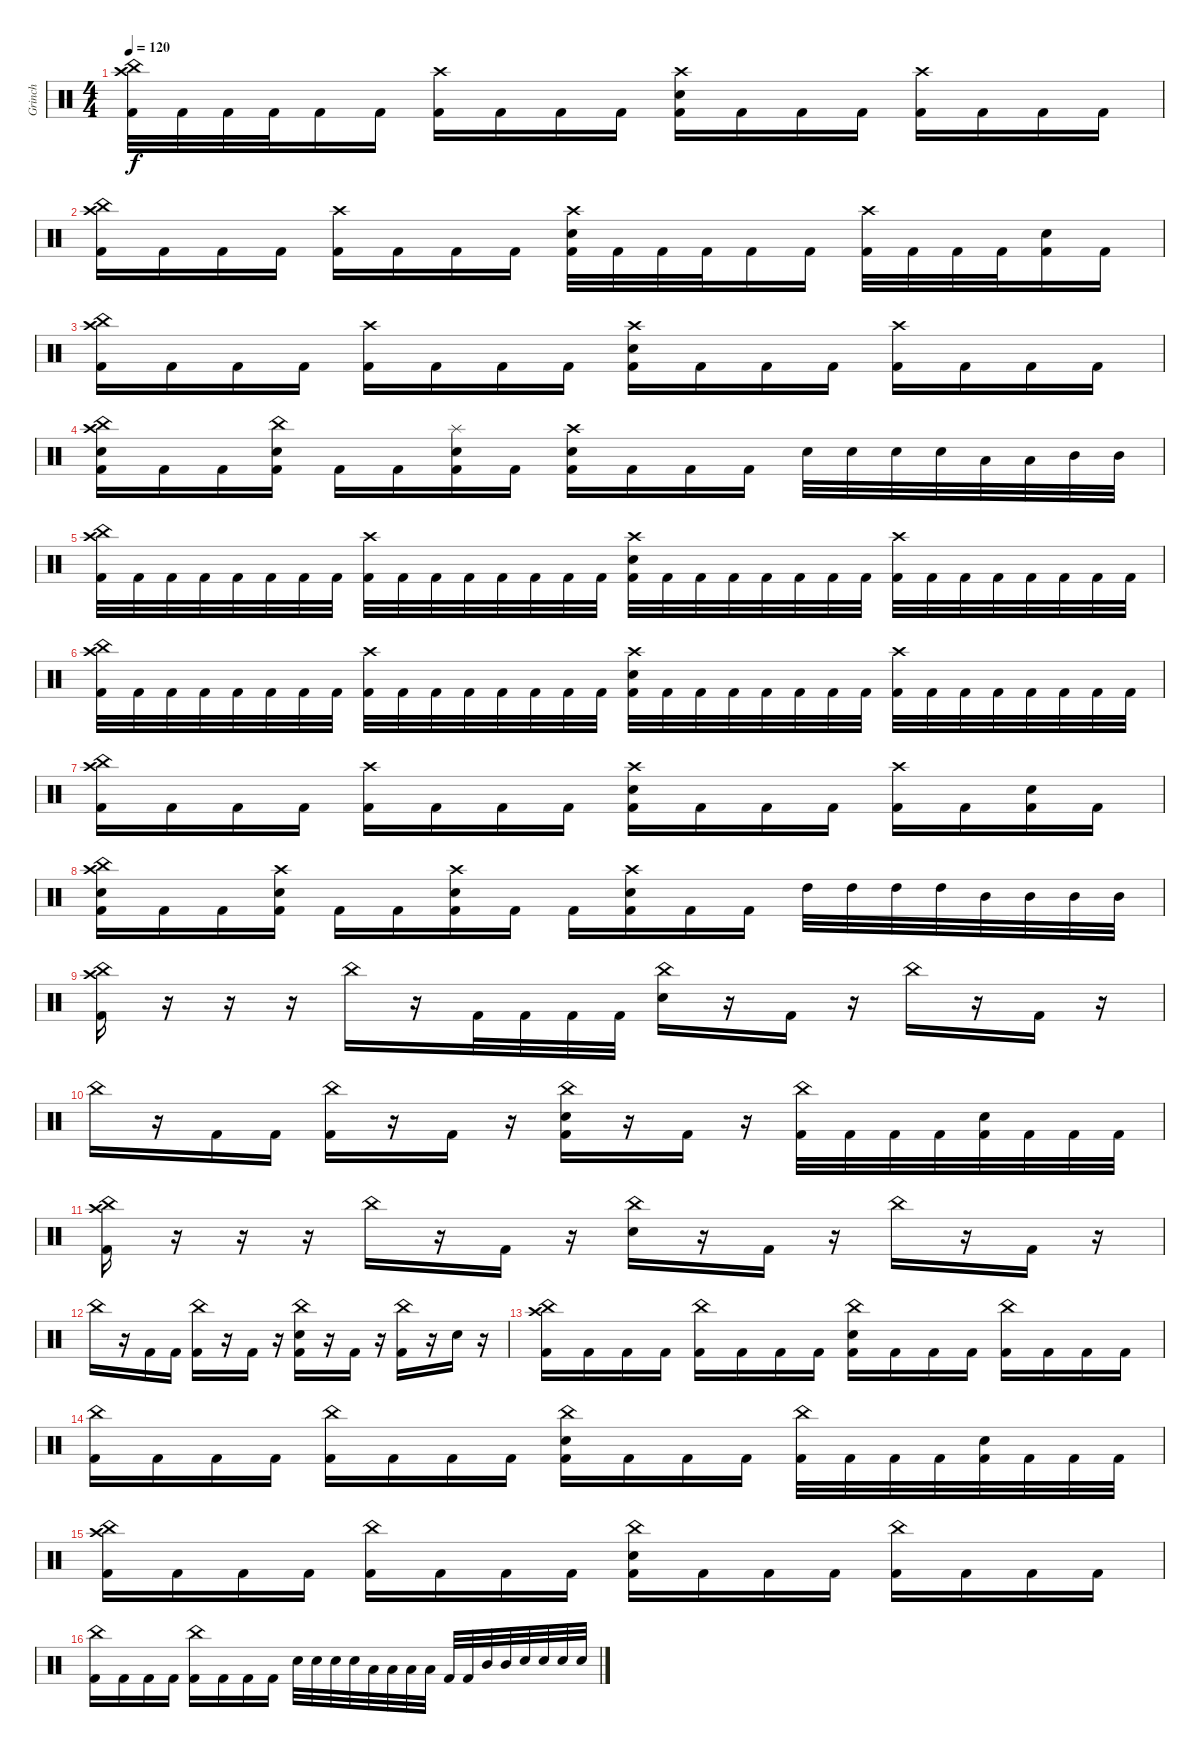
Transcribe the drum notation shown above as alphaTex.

\track ("Grinch" "Grinch") {instrument percussion}
\staff {score}
\articulation defaults
\ts (4 4)
\tempo 120
\clef neutral
\ks c
("Crash high (hit)" "China (hit)" "Kick (hit) 2").32{dy f} "Kick (hit) 2".32 "Kick (hit) 2".32 "Kick (hit) 2".32 "Kick (hit) 2".16 "Kick (hit) 2".16 ("Crash high (hit)" "Kick (hit) 2").16 "Kick (hit) 2".16 "Kick (hit) 2".16 "Kick (hit) 2".16 ("Crash high (hit)" "Snare (hit) 2" "Kick (hit) 2").16 "Kick (hit) 2".16 "Kick (hit) 2".16 "Kick (hit) 2".16 ("Crash high (hit)" "Kick (hit) 2").16 "Kick (hit) 2".16 "Kick (hit) 2".16 "Kick (hit) 2".16 |
("Crash high (hit)" "China (hit)" "Kick (hit) 2").16 "Kick (hit) 2".16 "Kick (hit) 2".16 "Kick (hit) 2".16 ("Crash high (hit)" "Kick (hit) 2").16 "Kick (hit) 2".16 "Kick (hit) 2".16 "Kick (hit) 2".16 ("Crash high (hit)" "Snare (hit) 2" "Kick (hit) 2").32 "Kick (hit) 2".32 "Kick (hit) 2".32 "Kick (hit) 2".32 "Kick (hit) 2".16 "Kick (hit) 2".16 ("Crash high (hit)" "Kick (hit) 2").32 "Kick (hit) 2".32 "Kick (hit) 2".32 "Kick (hit) 2".32 ("Snare (hit) 2" "Kick (hit) 2").16 "Kick (hit) 2".16 |
("Crash high (hit)" "China (hit)" "Kick (hit) 2").16 "Kick (hit) 2".16 "Kick (hit) 2".16 "Kick (hit) 2".16 ("Crash high (hit)" "Kick (hit) 2").16 "Kick (hit) 2".16 "Kick (hit) 2".16 "Kick (hit) 2".16 ("Crash high (hit)" "Snare (hit) 2" "Kick (hit) 2").16 "Kick (hit) 2".16 "Kick (hit) 2".16 "Kick (hit) 2".16 ("Crash high (hit)" "Kick (hit) 2").16 "Kick (hit) 2".16 "Kick (hit) 2".16 "Kick (hit) 2".16 |
("Crash high (hit)" "China (hit)" "Snare (hit) 2" "Kick (hit) 2").16 "Kick (hit) 2".16 "Kick (hit) 2".16 ("China (hit)" "Snare (hit) 2" "Kick (hit) 2").16 "Kick (hit) 2".16 "Kick (hit) 2".16 ("Splash (hit)" "Snare (hit) 2" "Kick (hit) 2").16 "Kick (hit) 2".16 ("Crash high (hit)" "Snare (hit) 2" "Kick (hit) 2").16 "Kick (hit) 2".16 "Kick (hit) 2".16 "Kick (hit) 2".16 "Snare (hit) 2".32 "Snare (hit) 2".32 "Snare (hit) 2".32 "Snare (hit) 2".32 "Low Tom (hit)".32 "Low Tom (hit)".32 "Mid Tom (hit)".32 "Mid Tom (hit)".32 |
("Crash high (hit)" "China (hit)" "Kick (hit) 2").32 "Kick (hit) 2".32 "Kick (hit) 2".32 "Kick (hit) 2".32 "Kick (hit) 2".32 "Kick (hit) 2".32 "Kick (hit) 2".32 "Kick (hit) 2".32 ("Crash high (hit)" "Kick (hit) 2").32 "Kick (hit) 2".32 "Kick (hit) 2".32 "Kick (hit) 2".32 "Kick (hit) 2".32 "Kick (hit) 2".32 "Kick (hit) 2".32 "Kick (hit) 2".32 ("Crash high (hit)" "Snare (hit) 2" "Kick (hit) 2").32 "Kick (hit) 2".32 "Kick (hit) 2".32 "Kick (hit) 2".32 "Kick (hit) 2".32 "Kick (hit) 2".32 "Kick (hit) 2".32 "Kick (hit) 2".32 ("Crash high (hit)" "Kick (hit) 2").32 "Kick (hit) 2".32 "Kick (hit) 2".32 "Kick (hit) 2".32 "Kick (hit) 2".32 "Kick (hit) 2".32 "Kick (hit) 2".32 "Kick (hit) 2".32 |
("Crash high (hit)" "China (hit)" "Kick (hit) 2").32 "Kick (hit) 2".32 "Kick (hit) 2".32 "Kick (hit) 2".32 "Kick (hit) 2".32 "Kick (hit) 2".32 "Kick (hit) 2".32 "Kick (hit) 2".32 ("Crash high (hit)" "Kick (hit) 2").32 "Kick (hit) 2".32 "Kick (hit) 2".32 "Kick (hit) 2".32 "Kick (hit) 2".32 "Kick (hit) 2".32 "Kick (hit) 2".32 "Kick (hit) 2".32 ("Crash high (hit)" "Snare (hit) 2" "Kick (hit) 2").32 "Kick (hit) 2".32 "Kick (hit) 2".32 "Kick (hit) 2".32 "Kick (hit) 2".32 "Kick (hit) 2".32 "Kick (hit) 2".32 "Kick (hit) 2".32 ("Crash high (hit)" "Kick (hit) 2").32 "Kick (hit) 2".32 "Kick (hit) 2".32 "Kick (hit) 2".32 "Kick (hit) 2".32 "Kick (hit) 2".32 "Kick (hit) 2".32 "Kick (hit) 2".32 |
("Crash high (hit)" "China (hit)" "Kick (hit) 2").16 "Kick (hit) 2".16 "Kick (hit) 2".16 "Kick (hit) 2".16 ("Crash high (hit)" "Kick (hit) 2").16 "Kick (hit) 2".16 "Kick (hit) 2".16 "Kick (hit) 2".16 ("Crash high (hit)" "Snare (hit) 2" "Kick (hit) 2").16 "Kick (hit) 2".16 "Kick (hit) 2".16 "Kick (hit) 2".16 ("Crash high (hit)" "Kick (hit) 2").16 "Kick (hit) 2".16 ("Snare (hit) 2" "Kick (hit) 2").16 "Kick (hit) 2".16 |
("Crash high (hit)" "China (hit)" "Snare (hit) 2" "Kick (hit) 2").16 "Kick (hit) 2".16 "Kick (hit) 2".16 ("Crash high (hit)" "Snare (hit) 2" "Kick (hit) 2").16 "Kick (hit) 2".16 "Kick (hit) 2".16 ("Crash high (hit)" "Snare (hit) 2" "Kick (hit) 2").16 "Kick (hit) 2".16 "Kick (hit) 2".16 ("Crash high (hit)" "Snare (hit) 2" "Kick (hit) 2").16 "Kick (hit) 2".16 "Kick (hit) 2".16 "High Tom (hit)".32 "High Tom (hit)".32 "High Tom (hit)".32 "High Tom (hit)".32 "Mid Tom (hit)".32 "Mid Tom (hit)".32 "Mid Tom (hit)".32 "Mid Tom (hit)".32 |
("China (hit)" "Crash high (hit)" "Kick (hit) 2").16 r.16 r.16 r.16 "China (hit)".16 r.16 "Kick (hit) 2".32 "Kick (hit) 2".32 "Kick (hit) 2".32 "Kick (hit) 2".32 ("China (hit)" "Snare (hit) 2").16 r.16 "Kick (hit) 2".16 r.16 "China (hit)".16 r.16 "Kick (hit) 2".16 r.16 |
"China (hit)".16 r.16 "Kick (hit) 2".16 "Kick (hit) 2".16 ("China (hit)" "Kick (hit) 2").16 r.16 "Kick (hit) 2".16 r.16 ("China (hit)" "Snare (hit) 2" "Kick (hit) 2").16 r.16 "Kick (hit) 2".16 r.16 ("China (hit)" "Kick (hit) 2").32 "Kick (hit) 2".32 "Kick (hit) 2".32 "Kick (hit) 2".32 ("Snare (hit) 2" "Kick (hit) 2").32 "Kick (hit) 2".32 "Kick (hit) 2".32 "Kick (hit) 2".32 |
("China (hit)" "Crash high (hit)" "Kick (hit) 2").16 r.16 r.16 r.16 "China (hit)".16 r.16 "Kick (hit) 2".16 r.16 ("China (hit)" "Snare (hit) 2").16 r.16 "Kick (hit) 2".16 r.16 "China (hit)".16 r.16 "Kick (hit) 2".16 r.16 |
"China (hit)".16 r.16 "Kick (hit) 2".16 "Kick (hit) 2".16 ("China (hit)" "Kick (hit) 2").16 r.16 "Kick (hit) 2".16 r.16 ("China (hit)" "Snare (hit) 2" "Kick (hit) 2").16 r.16 "Kick (hit) 2".16 r.16 ("China (hit)" "Kick (hit) 2").16 r.16 "Snare (hit) 2".16 r.16 |
("China (hit)" "Crash high (hit)" "Kick (hit) 2").16 "Kick (hit) 2".16 "Kick (hit) 2".16 "Kick (hit) 2".16 ("China (hit)" "Kick (hit) 2").16 "Kick (hit) 2".16 "Kick (hit) 2".16 "Kick (hit) 2".16 ("China (hit)" "Snare (hit) 2" "Kick (hit) 2").16 "Kick (hit) 2".16 "Kick (hit) 2".16 "Kick (hit) 2".16 ("China (hit)" "Kick (hit) 2").16 "Kick (hit) 2".16 "Kick (hit) 2".16 "Kick (hit) 2".16 |
("China (hit)" "Kick (hit) 2").16 "Kick (hit) 2".16 "Kick (hit) 2".16 "Kick (hit) 2".16 ("China (hit)" "Kick (hit) 2").16 "Kick (hit) 2".16 "Kick (hit) 2".16 "Kick (hit) 2".16 ("China (hit)" "Snare (hit) 2" "Kick (hit) 2").16 "Kick (hit) 2".16 "Kick (hit) 2".16 "Kick (hit) 2".16 ("China (hit)" "Kick (hit) 2").32 "Kick (hit) 2".32 "Kick (hit) 2".32 "Kick (hit) 2".32 ("Snare (hit) 2" "Kick (hit) 2").32 "Kick (hit) 2".32 "Kick (hit) 2".32 "Kick (hit) 2".32 |
("China (hit)" "Crash high (hit)" "Kick (hit) 2").16 "Kick (hit) 2".16 "Kick (hit) 2".16 "Kick (hit) 2".16 ("China (hit)" "Kick (hit) 2").16 "Kick (hit) 2".16 "Kick (hit) 2".16 "Kick (hit) 2".16 ("China (hit)" "Snare (hit) 2" "Kick (hit) 2").16 "Kick (hit) 2".16 "Kick (hit) 2".16 "Kick (hit) 2".16 ("China (hit)" "Kick (hit) 2").16 "Kick (hit) 2".16 "Kick (hit) 2".16 "Kick (hit) 2".16 |
("China (hit)" "Kick (hit) 2").16 "Kick (hit) 2".16 "Kick (hit) 2".16 "Kick (hit) 2".16 ("China (hit)" "Kick (hit) 2").16 "Kick (hit) 2".16 "Kick (hit) 2".16 "Kick (hit) 2".16 "Snare (hit) 2".32 "Snare (hit) 2".32 "Snare (hit) 2".32 "Snare (hit) 2".32 "Low Tom (hit)".32 "Low Tom (hit)".32 "Low Tom (hit)".32 "Low Tom (hit)".32 "Kick (hit) 2".32 "Kick (hit) 2".32 "Mid Tom (hit)".32 "Mid Tom (hit)".32 "Snare (hit) 2".32 "Snare (hit) 2".32 "Snare (hit) 2".32 "Snare (hit) 2".32
